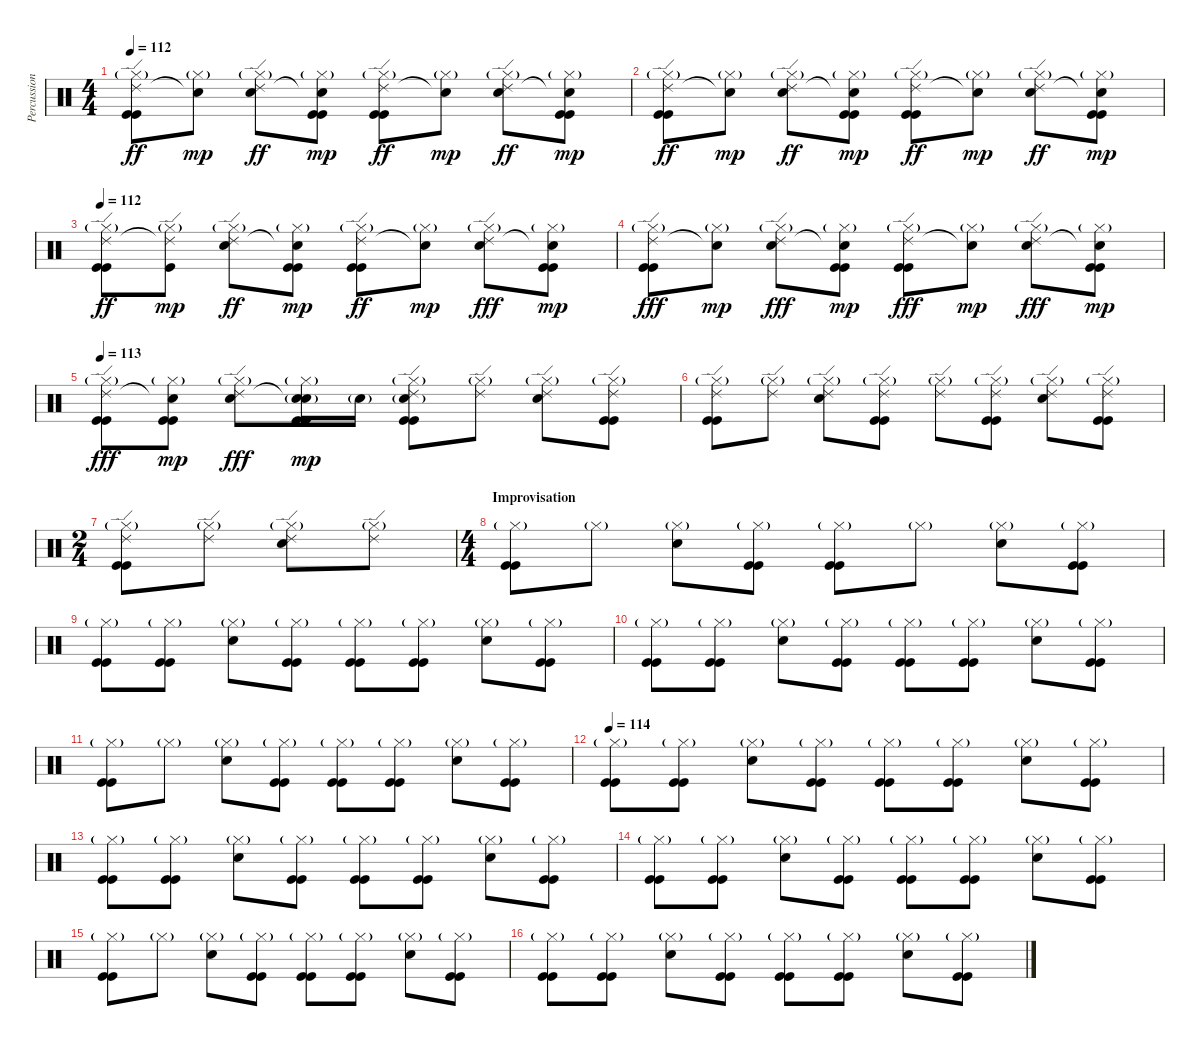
\track ("Percussion" "Percussion") {instrument percussion}
\staff {score}
\articulation defaults
\ts (4 4)
\tempo 112
\clef neutral
\ks c
("Hi-Hat (closed)"{g} "Ride (edge) 2" "Kick (hit)" "Kick (hit)").8{dy ff} ("Hi-Hat (closed)"{g} "Snare (hit)"{t}).8{dy mp} ("Hi-Hat (closed)"{g} "Ride (edge) 2" "Snare (hit) 2").8{dy ff} ("Hi-Hat (closed)"{g} "Snare (hit)"{t} "Kick (hit)" "Kick (hit)").8{dy mp} ("Hi-Hat (closed)"{g} "Ride (edge) 2" "Kick (hit)" "Kick (hit)").8{dy ff} ("Hi-Hat (closed)"{g} "Snare (hit)"{t}).8{dy mp} ("Hi-Hat (closed)"{g} "Ride (edge) 2" "Snare (hit) 2").8{dy ff} ("Hi-Hat (closed)"{g} "Snare (hit)"{t} "Kick (hit)" "Kick (hit)").8{dy mp} |
("Hi-Hat (closed)"{g} "Ride (edge) 2" "Kick (hit)" "Kick (hit)").8{dy ff} ("Hi-Hat (closed)"{g} "Snare (hit)"{t}).8{dy mp} ("Hi-Hat (closed)"{g} "Ride (edge) 2" "Snare (hit) 2").8{dy ff} ("Hi-Hat (closed)"{g} "Snare (hit)"{t} "Kick (hit)" "Kick (hit)").8{dy mp} ("Hi-Hat (closed)"{g} "Ride (edge) 2" "Kick (hit)" "Kick (hit)").8{dy ff} ("Hi-Hat (closed)"{g} "Snare (hit)"{t}).8{dy mp} ("Hi-Hat (closed)"{g} "Ride (edge) 2" "Snare (hit) 2").8{dy ff} ("Hi-Hat (closed)"{g} "Snare (hit)"{t} "Kick (hit)" "Kick (hit)").8{dy mp} |
\tempo 112
("Hi-Hat (closed)"{g} "Ride (edge) 2" "Kick (hit)" "Kick (hit)").8{dy ff} ("Hi-Hat (closed)"{g} "Ride (edge) 2"{t} "Kick (hit)").8{dy mp} ("Hi-Hat (closed)"{g} "Ride (edge) 2" "Snare (hit) 2").8{dy ff} ("Hi-Hat (closed)"{g} "Snare (hit)"{t} "Kick (hit)" "Kick (hit)").8{dy mp} ("Hi-Hat (closed)"{g} "Ride (edge) 2" "Kick (hit)" "Kick (hit)").8{dy ff} ("Hi-Hat (closed)"{g} "Snare (hit)"{t}).8{dy mp} ("Hi-Hat (closed)"{g} "Ride (edge) 2" "Snare (hit) 2").8{dy fff} ("Hi-Hat (closed)"{g} "Snare (hit)"{t} "Kick (hit)" "Kick (hit)").8{dy mp} |
("Hi-Hat (closed)"{g} "Ride (edge) 2" "Kick (hit)" "Kick (hit)").8{dy fff} ("Hi-Hat (closed)"{g} "Snare (hit)"{t}).8{dy mp} ("Hi-Hat (closed)"{g} "Ride (edge) 2" "Snare (hit) 2").8{dy fff} ("Hi-Hat (closed)"{g} "Snare (hit)"{t} "Kick (hit)" "Kick (hit)").8{dy mp} ("Hi-Hat (closed)"{g} "Ride (edge) 2" "Kick (hit)" "Kick (hit)").8{dy fff} ("Hi-Hat (closed)"{g} "Snare (hit)"{t}).8{dy mp} ("Hi-Hat (closed)"{g} "Ride (edge) 2" "Snare (hit) 2").8{dy fff} ("Hi-Hat (closed)"{g} "Snare (hit)"{t} "Kick (hit)" "Kick (hit)").8{dy mp} |
\tempo 113
("Hi-Hat (closed)"{g} "Ride (edge) 2" "Kick (hit)" "Kick (hit)").8{dy fff} ("Hi-Hat (closed)"{g} "Snare (hit)"{t} "Kick (hit)" "Kick (hit)").8{dy mp} ("Hi-Hat (closed)"{g} "Ride (edge) 2" "Snare (hit) 2").8{dy fff} ("Hi-Hat (closed)"{g} "Snare (hit)"{t} "Snare (hit) 2"{g} "Kick (hit)" "Kick (hit)").16{dy mp} "Snare (hit) 2"{g}.16 ("Hi-Hat (closed)"{g} "Ride (edge) 2" "Snare (hit) 2"{g} "Kick (hit)" "Kick (hit)").8 ("Hi-Hat (closed)"{g} "Ride (edge) 2").8 ("Hi-Hat (closed)"{g} "Ride (edge) 2" "Snare (hit) 2").8 ("Hi-Hat (closed)"{g} "Ride (edge) 2" "Kick (hit)" "Kick (hit)").8 |
("Hi-Hat (closed)"{g} "Ride (edge) 2" "Kick (hit)" "Kick (hit)").8 ("Hi-Hat (closed)"{g} "Ride (edge) 2").8 ("Hi-Hat (closed)"{g} "Ride (edge) 2" "Snare (hit) 2").8 ("Hi-Hat (closed)"{g} "Ride (edge) 2" "Kick (hit)" "Kick (hit)").8 ("Hi-Hat (closed)"{g} "Ride (edge) 2").8 ("Hi-Hat (closed)"{g} "Ride (edge) 2" "Kick (hit)" "Kick (hit)").8 ("Hi-Hat (closed)"{g} "Ride (edge) 2" "Snare (hit) 2").8 ("Hi-Hat (closed)"{g} "Ride (edge) 2" "Kick (hit)" "Kick (hit)").8 |
\ts (2 4)
("Hi-Hat (closed)"{g} "Ride (edge) 2" "Kick (hit)" "Kick (hit)").8 ("Hi-Hat (closed)"{g} "Ride (edge) 2").8 ("Hi-Hat (closed)"{g} "Ride (edge) 2" "Snare (hit) 2").8 ("Hi-Hat (closed)"{g} "Ride (edge) 2").8 |
\ts (4 4)
\section ("" "Improvisation")
("Hi-Hat (closed)"{g} "Kick (hit)" "Kick (hit)").8 "Hi-Hat (closed)"{g}.8 ("Hi-Hat (closed)"{g} "Snare (hit) 2").8 ("Hi-Hat (closed)"{g} "Kick (hit)" "Kick (hit)").8 ("Hi-Hat (closed)"{g} "Kick (hit)" "Kick (hit)").8 "Hi-Hat (closed)"{g}.8 ("Hi-Hat (closed)"{g} "Snare (hit) 2").8 ("Hi-Hat (closed)"{g} "Kick (hit)" "Kick (hit)").8 |
("Hi-Hat (closed)"{g} "Kick (hit)" "Kick (hit)").8 ("Hi-Hat (closed)"{g} "Kick (hit)" "Kick (hit)").8 ("Hi-Hat (closed)"{g} "Snare (hit) 2").8 ("Hi-Hat (closed)"{g} "Kick (hit)" "Kick (hit)").8 ("Hi-Hat (closed)"{g} "Kick (hit)" "Kick (hit)").8 ("Hi-Hat (closed)"{g} "Kick (hit)" "Kick (hit)").8 ("Hi-Hat (closed)"{g} "Snare (hit) 2").8 ("Hi-Hat (closed)"{g} "Kick (hit)" "Kick (hit)").8 |
("Hi-Hat (closed)"{g} "Kick (hit)" "Kick (hit)").8 ("Hi-Hat (closed)"{g} "Kick (hit)" "Kick (hit)").8 ("Hi-Hat (closed)"{g} "Snare (hit) 2").8 ("Hi-Hat (closed)"{g} "Kick (hit)" "Kick (hit)").8 ("Hi-Hat (closed)"{g} "Kick (hit)" "Kick (hit)").8 ("Hi-Hat (closed)"{g} "Kick (hit)" "Kick (hit)").8 ("Hi-Hat (closed)"{g} "Snare (hit) 2").8 ("Hi-Hat (closed)"{g} "Kick (hit)" "Kick (hit)").8 |
("Hi-Hat (closed)"{g} "Kick (hit)" "Kick (hit)").8 "Hi-Hat (closed)"{g}.8 ("Hi-Hat (closed)"{g} "Snare (hit) 2").8 ("Hi-Hat (closed)"{g} "Kick (hit)" "Kick (hit)").8 ("Hi-Hat (closed)"{g} "Kick (hit)" "Kick (hit)").8 ("Hi-Hat (closed)"{g} "Kick (hit)" "Kick (hit)").8 ("Hi-Hat (closed)"{g} "Snare (hit) 2").8 ("Hi-Hat (closed)"{g} "Kick (hit)" "Kick (hit)").8 |
\tempo 114
("Hi-Hat (closed)"{g} "Kick (hit)" "Kick (hit)").8 ("Hi-Hat (closed)"{g} "Kick (hit)" "Kick (hit)").8 ("Hi-Hat (closed)"{g} "Snare (hit) 2").8 ("Hi-Hat (closed)"{g} "Kick (hit)" "Kick (hit)").8 ("Hi-Hat (closed)"{g} "Kick (hit)" "Kick (hit)").8 ("Hi-Hat (closed)"{g} "Kick (hit)" "Kick (hit)").8 ("Hi-Hat (closed)"{g} "Snare (hit) 2").8 ("Hi-Hat (closed)"{g} "Kick (hit)" "Kick (hit)").8 |
("Hi-Hat (closed)"{g} "Kick (hit)" "Kick (hit)").8 ("Hi-Hat (closed)"{g} "Kick (hit)" "Kick (hit)").8 ("Hi-Hat (closed)"{g} "Snare (hit) 2").8 ("Hi-Hat (closed)"{g} "Kick (hit)" "Kick (hit)").8 ("Hi-Hat (closed)"{g} "Kick (hit)" "Kick (hit)").8 ("Hi-Hat (closed)"{g} "Kick (hit)" "Kick (hit)").8 ("Hi-Hat (closed)"{g} "Snare (hit) 2").8 ("Hi-Hat (closed)"{g} "Kick (hit)" "Kick (hit)").8 |
("Hi-Hat (closed)"{g} "Kick (hit)" "Kick (hit)").8 ("Hi-Hat (closed)"{g} "Kick (hit)" "Kick (hit)").8 ("Hi-Hat (closed)"{g} "Snare (hit) 2").8 ("Hi-Hat (closed)"{g} "Kick (hit)" "Kick (hit)").8 ("Hi-Hat (closed)"{g} "Kick (hit)" "Kick (hit)").8 ("Hi-Hat (closed)"{g} "Kick (hit)" "Kick (hit)").8 ("Hi-Hat (closed)"{g} "Snare (hit) 2").8 ("Hi-Hat (closed)"{g} "Kick (hit)" "Kick (hit)").8 |
("Hi-Hat (closed)"{g} "Kick (hit)" "Kick (hit)").8 "Hi-Hat (closed)"{g}.8 ("Hi-Hat (closed)"{g} "Snare (hit) 2").8 ("Hi-Hat (closed)"{g} "Kick (hit)" "Kick (hit)").8 ("Hi-Hat (closed)"{g} "Kick (hit)" "Kick (hit)").8 ("Hi-Hat (closed)"{g} "Kick (hit)" "Kick (hit)").8 ("Hi-Hat (closed)"{g} "Snare (hit) 2").8 ("Hi-Hat (closed)"{g} "Kick (hit)" "Kick (hit)").8 |
("Hi-Hat (closed)"{g} "Kick (hit)" "Kick (hit)").8 ("Hi-Hat (closed)"{g} "Kick (hit)" "Kick (hit)").8 ("Hi-Hat (closed)"{g} "Snare (hit) 2").8 ("Hi-Hat (closed)"{g} "Kick (hit)" "Kick (hit)").8 ("Hi-Hat (closed)"{g} "Kick (hit)" "Kick (hit)").8 ("Hi-Hat (closed)"{g} "Kick (hit)" "Kick (hit)").8 ("Hi-Hat (closed)"{g} "Snare (hit) 2").8 ("Hi-Hat (closed)"{g} "Kick (hit)" "Kick (hit)").8
